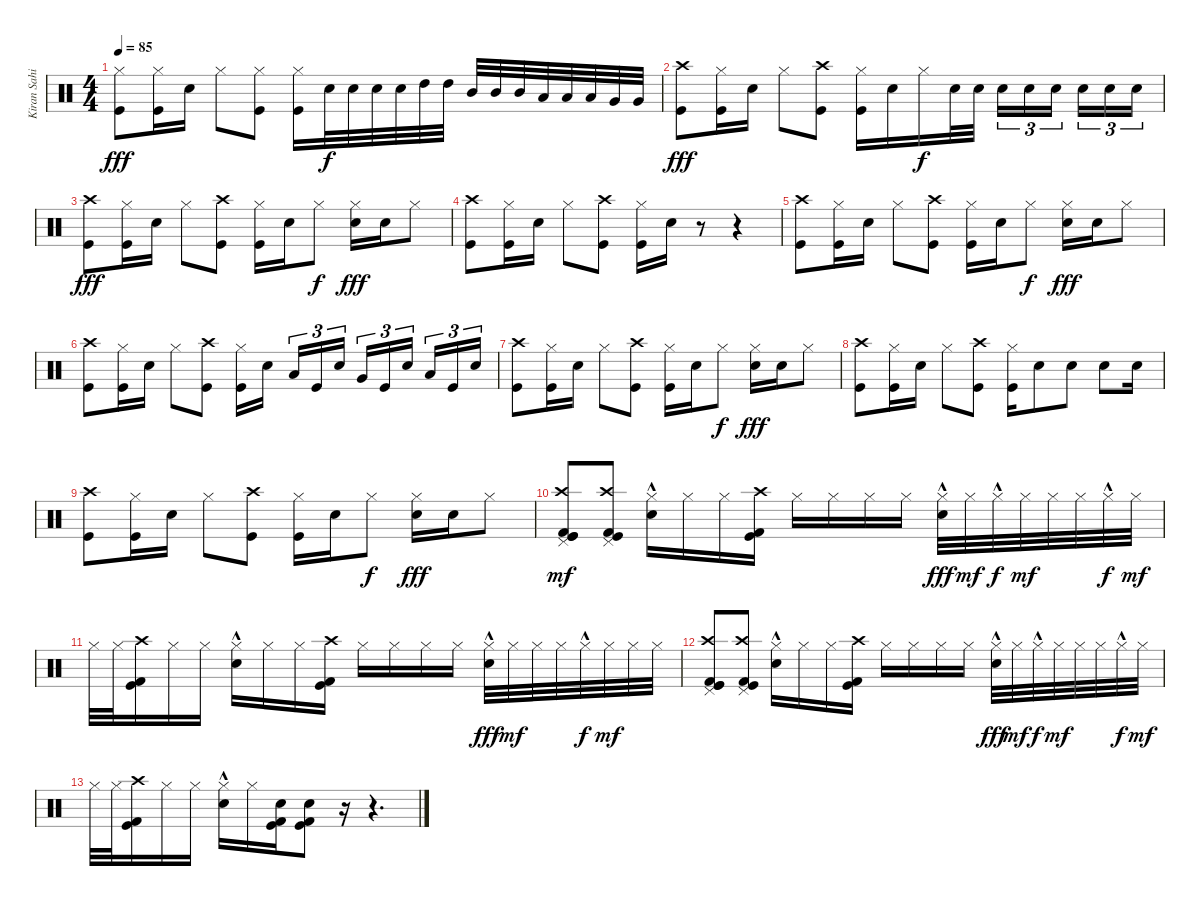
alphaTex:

\track ("Kiran Sahi - Drums" "Kiran Sahi") {instrument percussion}
\staff {score}
\articulation defaults
\ts (4 4)
\tempo 85
\clef neutral
\ks c
("Hi-Hat (closed)" "Kick (hit)").8{dy fff} ("Hi-Hat (closed)" "Kick (hit)").16 "Snare (hit) 2".16 "Hi-Hat (closed)".8 ("Hi-Hat (closed)" "Kick (hit)").8 ("Hi-Hat (closed)" "Kick (hit)").16 "Snare (hit) 2".32{dy f} "Snare (hit) 2".32 "Snare (hit) 2".32 "Snare (hit) 2".32 "High Tom (hit)".32 "High Tom (hit)".32 "Mid Tom (hit)".32 "Mid Tom (hit)".32 "Mid Tom (hit)".32 "Low Tom (hit)".32 "Low Tom (hit)".32 "Low Tom (hit)".32 "Very Low Tom (hit)".32 "Very Low Tom (hit)".32 |
("Kick (hit)" "Crash high (hit)").8{dy fff} ("Hi-Hat (closed)" "Kick (hit)").16 "Snare (hit) 2".16 "Hi-Hat (closed)".8 ("Kick (hit)" "Crash high (hit)").8 ("Hi-Hat (closed)" "Kick (hit)").16 "Snare (hit) 2".16 "Hi-Hat (closed)".16{dy f} "Snare (hit) 2".32 "Snare (hit) 2".32 "Snare (hit) 2".16{tu (3 2)} "Snare (hit) 2".16{tu (3 2)} "Snare (hit) 2".16{tu (3 2) beam splitsecondary} "Snare (hit) 2".16{tu (3 2)} "Snare (hit) 2".16{tu (3 2)} "Snare (hit) 2".16{tu (3 2)} |
("Kick (hit)" "Crash high (hit)").8{dy fff} ("Hi-Hat (closed)" "Kick (hit)").16 "Snare (hit) 2".16 "Hi-Hat (closed)".8 ("Kick (hit)" "Crash high (hit)").8 ("Hi-Hat (closed)" "Kick (hit)").16 "Snare (hit) 2".16 "Hi-Hat (closed)".8{dy f} ("Hi-Hat (closed)" "Snare (hit) 2").16{dy fff} "Snare (hit) 2".16 "Hi-Hat (closed)".8 |
("Kick (hit)" "Crash high (hit)").8 ("Hi-Hat (closed)" "Kick (hit)").16 "Snare (hit) 2".16 "Hi-Hat (closed)".8 ("Kick (hit)" "Crash high (hit)").8 ("Hi-Hat (closed)" "Kick (hit)").16 "Snare (hit) 2".16 r.8 r.4 |
("Kick (hit)" "Crash high (hit)").8 ("Hi-Hat (closed)" "Kick (hit)").16 "Snare (hit) 2".16 "Hi-Hat (closed)".8 ("Kick (hit)" "Crash high (hit)").8 ("Hi-Hat (closed)" "Kick (hit)").16 "Snare (hit) 2".16 "Hi-Hat (closed)".8{dy f} ("Hi-Hat (closed)" "Snare (hit) 2").16{dy fff} "Snare (hit) 2".16 "Hi-Hat (closed)".8 |
("Kick (hit)" "Crash high (hit)").8 ("Hi-Hat (closed)" "Kick (hit)").16 "Snare (hit) 2".16 "Hi-Hat (closed)".8 ("Kick (hit)" "Crash high (hit)").8 ("Hi-Hat (closed)" "Kick (hit)").16 "Snare (hit) 2".16{beam splitsecondary} "Low Tom (hit)".16{tu (3 2)} "Kick (hit)".16{tu (3 2)} "Snare (hit) 2".16{tu (3 2)} "Very Low Tom (hit)".16{tu (3 2)} "Kick (hit)".16{tu (3 2)} "Snare (hit) 2".16{tu (3 2) beam splitsecondary} "Low Floor Tom (hit)".16{tu (3 2)} "Kick (hit)".16{tu (3 2)} "Snare (hit) 2".16{tu (3 2)} |
("Kick (hit)" "Crash high (hit)").8 ("Hi-Hat (closed)" "Kick (hit)").16 "Snare (hit) 2".16 "Hi-Hat (closed)".8 ("Kick (hit)" "Crash high (hit)").8 ("Hi-Hat (closed)" "Kick (hit)").16 "Snare (hit) 2".16 "Hi-Hat (closed)".8{dy f} ("Hi-Hat (closed)" "Snare (hit) 2").16{dy fff} "Snare (hit) 2".16 "Hi-Hat (closed)".8 |
("Kick (hit)" "Crash high (hit)").8 ("Hi-Hat (closed)" "Kick (hit)").16 "Snare (hit) 2".16 "Hi-Hat (closed)".8 ("Kick (hit)" "Crash high (hit)").8 ("Hi-Hat (closed)" "Kick (hit)").16 "Snare (hit) 2".8 "Snare (hit) 2".8 "Snare (hit) 2".8 "Snare (hit) 2".16 |
("Kick (hit)" "Crash high (hit)").8 ("Hi-Hat (closed)" "Kick (hit)").16 "Snare (hit) 2".16 "Hi-Hat (closed)".8 ("Kick (hit)" "Crash high (hit)").8 ("Hi-Hat (closed)" "Kick (hit)").16 "Snare (hit) 2".16 "Hi-Hat (closed)".8{dy f} ("Hi-Hat (closed)" "Snare (hit) 2").16{dy fff} "Snare (hit) 2".16 "Hi-Hat (closed)".8 |
("Kick (hit)" "Pedal Hi-Hat (hit)" "Crash high (hit)" "Kick (hit)" "Kick (hit) 2").8{dy mf} ("Kick (hit)" "Pedal Hi-Hat (hit)" "Crash high (hit)" "Kick (hit) 2").8 ("Snare (hit) 2"{hac} "Hi-Hat (closed)").16 "Hi-Hat (closed)".16 "Hi-Hat (closed)".16 ("Kick (hit)" "Crash high (hit)" "Kick (hit) 2").16 "Hi-Hat (closed)".16 "Hi-Hat (closed)".16 "Hi-Hat (closed)".16 "Hi-Hat (closed)".16 ("Hi-Hat (closed)" "Snare (hit) 2"{hac}).32{dy fff} "Hi-Hat (closed)".32{dy mf} "Hi-Hat (closed)"{hac}.32{dy f} "Hi-Hat (closed)".32{dy mf} "Hi-Hat (closed)".32 "Hi-Hat (closed)".32 "Hi-Hat (closed)"{hac}.32{dy f} "Hi-Hat (closed)".32{dy mf} |
"Hi-Hat (closed)".32 "Hi-Hat (closed)".32 ("Kick (hit)" "Crash high (hit)" "Kick (hit) 2").16 "Hi-Hat (closed)".16 "Hi-Hat (closed)".16 ("Snare (hit) 2"{hac} "Hi-Hat (closed)").16 "Hi-Hat (closed)".16 "Hi-Hat (closed)".16 ("Kick (hit)" "Crash high (hit)" "Kick (hit) 2").16 "Hi-Hat (closed)".16 "Hi-Hat (closed)".16 "Hi-Hat (closed)".16 "Hi-Hat (closed)".16 ("Snare (hit) 2"{hac} "Hi-Hat (closed)"{hac}).32{dy fff} "Hi-Hat (closed)".32{dy mf} "Hi-Hat (closed)".32 "Hi-Hat (closed)".32 "Hi-Hat (closed)"{hac}.32{dy f} "Hi-Hat (closed)".32{dy mf} "Hi-Hat (closed)".32 "Hi-Hat (closed)".32 |
("Kick (hit)" "Pedal Hi-Hat (hit)" "Crash high (hit)" "Kick (hit)" "Kick (hit) 2").8 ("Kick (hit)" "Pedal Hi-Hat (hit)" "Crash high (hit)" "Kick (hit) 2").8 ("Snare (hit) 2"{hac} "Hi-Hat (closed)").16 "Hi-Hat (closed)".16 "Hi-Hat (closed)".16 ("Kick (hit)" "Crash high (hit)" "Kick (hit) 2").16 "Hi-Hat (closed)".16 "Hi-Hat (closed)".16 "Hi-Hat (closed)".16 "Hi-Hat (closed)".16 ("Hi-Hat (closed)" "Snare (hit) 2"{hac}).32{dy fff} "Hi-Hat (closed)".32{dy mf} "Hi-Hat (closed)"{hac}.32{dy f} "Hi-Hat (closed)".32{dy mf} "Hi-Hat (closed)".32 "Hi-Hat (closed)".32 "Hi-Hat (closed)"{hac}.32{dy f} "Hi-Hat (closed)".32{dy mf} |
"Hi-Hat (closed)".32 "Hi-Hat (closed)".32 ("Kick (hit)" "Crash high (hit)" "Kick (hit) 2").16 "Hi-Hat (closed)".16 "Hi-Hat (closed)".16 ("Snare (hit) 2"{hac} "Hi-Hat (closed)").16 "Hi-Hat (closed)".16 ("Snare (hit) 2" "Kick (hit)" "Kick (hit) 2").16 ("Kick (hit)" "Snare (hit) 2" "Kick (hit) 2").8 r.16 r.4{d}
